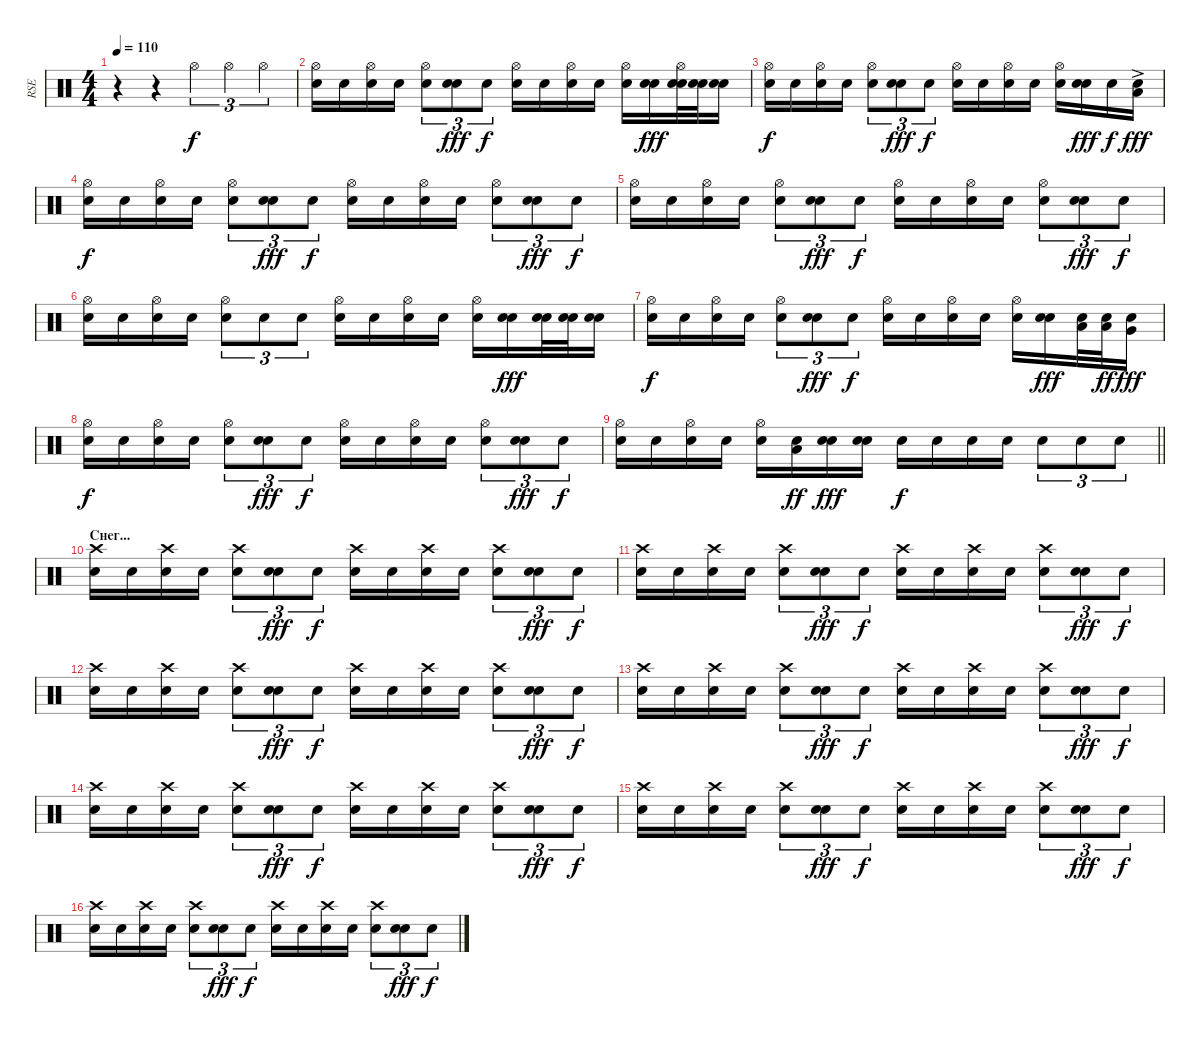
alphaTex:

\track ("RSE" "RSE") {instrument percussion}
\staff
\articulation defaults
\ts (4 4)
\tempo 110
\clef neutral
\ks c
r.4{dy f} r.4 "Hi-Hat (open)".4{tu (3 2)} "Hi-Hat (open)".4{tu (3 2)} "Hi-Hat (open)".4{tu (3 2)} |
("Hi-Hat (open)" "Snare (hit)").16 "Snare (hit)".16 ("Hi-Hat (open)" "Snare (hit)").16 "Snare (hit)".16 ("Hi-Hat (open)" "Snare (hit)").8{tu (3 2)} ("Electric Snare (hit)" "Snare (hit)").8{tu (3 2) dy fff} "Snare (hit)".8{tu (3 2) dy f} ("Hi-Hat (open)" "Snare (hit)").16 "Snare (hit)".16 ("Hi-Hat (open)" "Snare (hit)").16 "Snare (hit)".16 ("Hi-Hat (open)" "Snare (hit)").16 ("Electric Snare (hit)" "Snare (hit)").16{dy fff} ("Hi-Hat (open)" "Electric Snare (hit)" "Snare (hit)").32 ("Electric Snare (hit)" "Snare (hit)").32 ("Electric Snare (hit)" "Snare (hit)").16 |
("Hi-Hat (open)" "Snare (hit)").16{dy f} "Snare (hit)".16 ("Hi-Hat (open)" "Snare (hit)").16 "Snare (hit)".16 ("Hi-Hat (open)" "Snare (hit)").8{tu (3 2)} ("Electric Snare (hit)" "Snare (hit)").8{tu (3 2) dy fff} "Snare (hit)".8{tu (3 2) dy f} ("Hi-Hat (open)" "Snare (hit)").16 "Snare (hit)".16 ("Hi-Hat (open)" "Snare (hit)").16 "Snare (hit)".16 ("Hi-Hat (open)" "Snare (hit)").16 ("Electric Snare (hit)" "Snare (hit)").16{dy fff} "Snare (hit)".16{dy f} ("Low Floor Tom (hit)"{ac} "Snare (hit)").16{dy fff} |
("Hi-Hat (open)" "Snare (hit)").16{dy f} "Snare (hit)".16 ("Hi-Hat (open)" "Snare (hit)").16 "Snare (hit)".16 ("Hi-Hat (open)" "Snare (hit)").8{tu (3 2)} ("Electric Snare (hit)" "Snare (hit)").8{tu (3 2) dy fff} "Snare (hit)".8{tu (3 2) dy f} ("Hi-Hat (open)" "Snare (hit)").16 "Snare (hit)".16 ("Hi-Hat (open)" "Snare (hit)").16 "Snare (hit)".16 ("Hi-Hat (open)" "Snare (hit)").8{tu (3 2)} ("Electric Snare (hit)" "Snare (hit)").8{tu (3 2) dy fff} "Snare (hit)".8{tu (3 2) dy f} |
("Hi-Hat (open)" "Snare (hit)").16 "Snare (hit)".16 ("Hi-Hat (open)" "Snare (hit)").16 "Snare (hit)".16 ("Hi-Hat (open)" "Snare (hit)").8{tu (3 2)} ("Electric Snare (hit)" "Snare (hit)").8{tu (3 2) dy fff} "Snare (hit)".8{tu (3 2) dy f} ("Hi-Hat (open)" "Snare (hit)").16 "Snare (hit)".16 ("Hi-Hat (open)" "Snare (hit)").16 "Snare (hit)".16 ("Hi-Hat (open)" "Snare (hit)").8{tu (3 2)} ("Electric Snare (hit)" "Snare (hit)").8{tu (3 2) dy fff} "Snare (hit)".8{tu (3 2) dy f} |
("Hi-Hat (open)" "Snare (hit)").16 "Snare (hit)".16 ("Hi-Hat (open)" "Snare (hit)").16 "Snare (hit)".16 ("Hi-Hat (open)" "Snare (hit)").8{tu (3 2)} "Snare (hit)".8{tu (3 2)} "Snare (hit)".8{tu (3 2)} ("Hi-Hat (open)" "Snare (hit)").16 "Snare (hit)".16 ("Hi-Hat (open)" "Snare (hit)").16 "Snare (hit)".16 ("Hi-Hat (open)" "Snare (hit)").16 ("Electric Snare (hit)" "Snare (hit)").16{dy fff} ("Electric Snare (hit)" "Snare (hit)").32 ("Electric Snare (hit)" "Snare (hit)").32 ("Electric Snare (hit)" "Snare (hit)").16 |
("Hi-Hat (open)" "Snare (hit)").16{dy f} "Snare (hit)".16 ("Hi-Hat (open)" "Snare (hit)").16 "Snare (hit)".16 ("Hi-Hat (open)" "Snare (hit)").8{tu (3 2)} ("Electric Snare (hit)" "Snare (hit)").8{tu (3 2) dy fff} "Snare (hit)".8{tu (3 2) dy f} ("Hi-Hat (open)" "Snare (hit)").16 "Snare (hit)".16 ("Hi-Hat (open)" "Snare (hit)").16 "Snare (hit)".16 ("Hi-Hat (open)" "Snare (hit)").16 ("Electric Snare (hit)" "Snare (hit)").16{dy fff} ("Low Tom (hit)" "Snare (hit)").32 ("Low Tom (hit)" "Snare (hit)").32{dy ff} ("Very Low Tom (hit)" "Snare (hit)").16{dy fff} |
("Hi-Hat (open)" "Snare (hit)").16{dy f} "Snare (hit)".16 ("Hi-Hat (open)" "Snare (hit)").16 "Snare (hit)".16 ("Hi-Hat (open)" "Snare (hit)").8{tu (3 2)} ("Electric Snare (hit)" "Snare (hit)").8{tu (3 2) dy fff} "Snare (hit)".8{tu (3 2) dy f} ("Hi-Hat (open)" "Snare (hit)").16 "Snare (hit)".16 ("Hi-Hat (open)" "Snare (hit)").16 "Snare (hit)".16 ("Hi-Hat (open)" "Snare (hit)").8{tu (3 2)} ("Electric Snare (hit)" "Snare (hit)").8{tu (3 2) dy fff} "Snare (hit)".8{tu (3 2) dy f} |
\barLineRight lightlight
("Hi-Hat (open)" "Snare (hit)").16 "Snare (hit)".16 ("Hi-Hat (open)" "Snare (hit)").16 "Snare (hit)".16 ("Hi-Hat (open)" "Snare (hit)").16 ("Low Floor Tom (hit)" "Snare (hit)").16{dy ff} ("Electric Snare (hit)" "Snare (hit)").16{dy fff} ("Electric Snare (hit)" "Snare (hit)").16 "Snare (hit)".16{dy f} "Snare (hit)".16 "Snare (hit)".16 "Snare (hit)".16 "Snare (hit)".8{tu (3 2)} "Snare (hit)".8{tu (3 2)} "Snare (hit)".8{tu (3 2)} |
\section ("" "Снег...")
("Crash high (hit)" "Snare (hit)").16 "Snare (hit)".16 ("Crash high (hit)" "Snare (hit)").16 "Snare (hit)".16 ("Crash high (hit)" "Snare (hit)").8{tu (3 2)} ("Electric Snare (hit)" "Snare (hit)").8{tu (3 2) dy fff} "Snare (hit)".8{tu (3 2) dy f} ("Crash high (hit)" "Snare (hit)").16 "Snare (hit)".16 ("Crash high (hit)" "Snare (hit)").16 "Snare (hit)".16 ("Crash high (hit)" "Snare (hit)").8{tu (3 2)} ("Electric Snare (hit)" "Snare (hit)").8{tu (3 2) dy fff} "Snare (hit)".8{tu (3 2) dy f} |
("Crash high (hit)" "Snare (hit)").16 "Snare (hit)".16 ("Crash high (hit)" "Snare (hit)").16 "Snare (hit)".16 ("Crash high (hit)" "Snare (hit)").8{tu (3 2)} ("Electric Snare (hit)" "Snare (hit)").8{tu (3 2) dy fff} "Snare (hit)".8{tu (3 2) dy f} ("Crash high (hit)" "Snare (hit)").16 "Snare (hit)".16 ("Crash high (hit)" "Snare (hit)").16 "Snare (hit)".16 ("Crash high (hit)" "Snare (hit)").8{tu (3 2)} ("Electric Snare (hit)" "Snare (hit)").8{tu (3 2) dy fff} "Snare (hit)".8{tu (3 2) dy f} |
("Crash high (hit)" "Snare (hit)").16 "Snare (hit)".16 ("Crash high (hit)" "Snare (hit)").16 "Snare (hit)".16 ("Crash high (hit)" "Snare (hit)").8{tu (3 2)} ("Electric Snare (hit)" "Snare (hit)").8{tu (3 2) dy fff} "Snare (hit)".8{tu (3 2) dy f} ("Crash high (hit)" "Snare (hit)").16 "Snare (hit)".16 ("Crash high (hit)" "Snare (hit)").16 "Snare (hit)".16 ("Crash high (hit)" "Snare (hit)").8{tu (3 2)} ("Electric Snare (hit)" "Snare (hit)").8{tu (3 2) dy fff} "Snare (hit)".8{tu (3 2) dy f} |
("Crash high (hit)" "Snare (hit)").16 "Snare (hit)".16 ("Crash high (hit)" "Snare (hit)").16 "Snare (hit)".16 ("Crash high (hit)" "Snare (hit)").8{tu (3 2)} ("Electric Snare (hit)" "Snare (hit)").8{tu (3 2) dy fff} "Snare (hit)".8{tu (3 2) dy f} ("Crash high (hit)" "Snare (hit)").16 "Snare (hit)".16 ("Crash high (hit)" "Snare (hit)").16 "Snare (hit)".16 ("Crash high (hit)" "Snare (hit)").8{tu (3 2)} ("Electric Snare (hit)" "Snare (hit)").8{tu (3 2) dy fff} "Snare (hit)".8{tu (3 2) dy f} |
("Crash high (hit)" "Snare (hit)").16 "Snare (hit)".16 ("Crash high (hit)" "Snare (hit)").16 "Snare (hit)".16 ("Crash high (hit)" "Snare (hit)").8{tu (3 2)} ("Electric Snare (hit)" "Snare (hit)").8{tu (3 2) dy fff} "Snare (hit)".8{tu (3 2) dy f} ("Crash high (hit)" "Snare (hit)").16 "Snare (hit)".16 ("Crash high (hit)" "Snare (hit)").16 "Snare (hit)".16 ("Crash high (hit)" "Snare (hit)").8{tu (3 2)} ("Electric Snare (hit)" "Snare (hit)").8{tu (3 2) dy fff} "Snare (hit)".8{tu (3 2) dy f} |
("Crash high (hit)" "Snare (hit)").16 "Snare (hit)".16 ("Crash high (hit)" "Snare (hit)").16 "Snare (hit)".16 ("Crash high (hit)" "Snare (hit)").8{tu (3 2)} ("Electric Snare (hit)" "Snare (hit)").8{tu (3 2) dy fff} "Snare (hit)".8{tu (3 2) dy f} ("Crash high (hit)" "Snare (hit)").16 "Snare (hit)".16 ("Crash high (hit)" "Snare (hit)").16 "Snare (hit)".16 ("Crash high (hit)" "Snare (hit)").8{tu (3 2)} ("Electric Snare (hit)" "Snare (hit)").8{tu (3 2) dy fff} "Snare (hit)".8{tu (3 2) dy f} |
("Crash high (hit)" "Snare (hit)").16 "Snare (hit)".16 ("Crash high (hit)" "Snare (hit)").16 "Snare (hit)".16 ("Crash high (hit)" "Snare (hit)").8{tu (3 2)} ("Electric Snare (hit)" "Snare (hit)").8{tu (3 2) dy fff} "Snare (hit)".8{tu (3 2) dy f} ("Crash high (hit)" "Snare (hit)").16 "Snare (hit)".16 ("Crash high (hit)" "Snare (hit)").16 "Snare (hit)".16 ("Crash high (hit)" "Snare (hit)").8{tu (3 2)} ("Electric Snare (hit)" "Snare (hit)").8{tu (3 2) dy fff} "Snare (hit)".8{tu (3 2) dy f}
